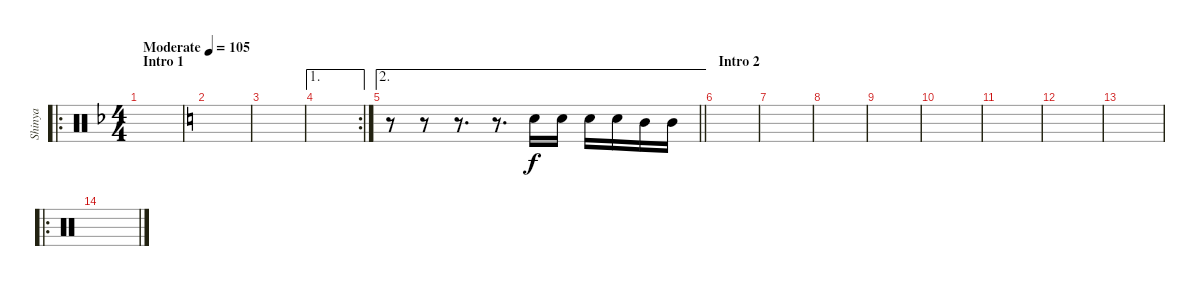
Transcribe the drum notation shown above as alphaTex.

\track ("Shinya" "Shinya") {instrument percussion}
\staff {score}
\articulation defaults
\ro
\ts (4 4)
\section ("" "Intro 1")
\tempo (105 "Moderate")
\clef neutral
\ks dminor
|
\ks c
|
|
\ae 1
\rc 2
|
\ae 2
\barLineRight lightlight
r.8 r.8 r.8{d} r.8{d} "Snare (hit) 2".16 "Snare (hit) 2".16 "Snare (hit) 2".16 "Snare (hit) 2".16 "Mid Tom (hit)".16 "Mid Tom (hit)".16 |
\section ("" "Intro 2")
|
|
|
|
|
|
|
|
\ro
